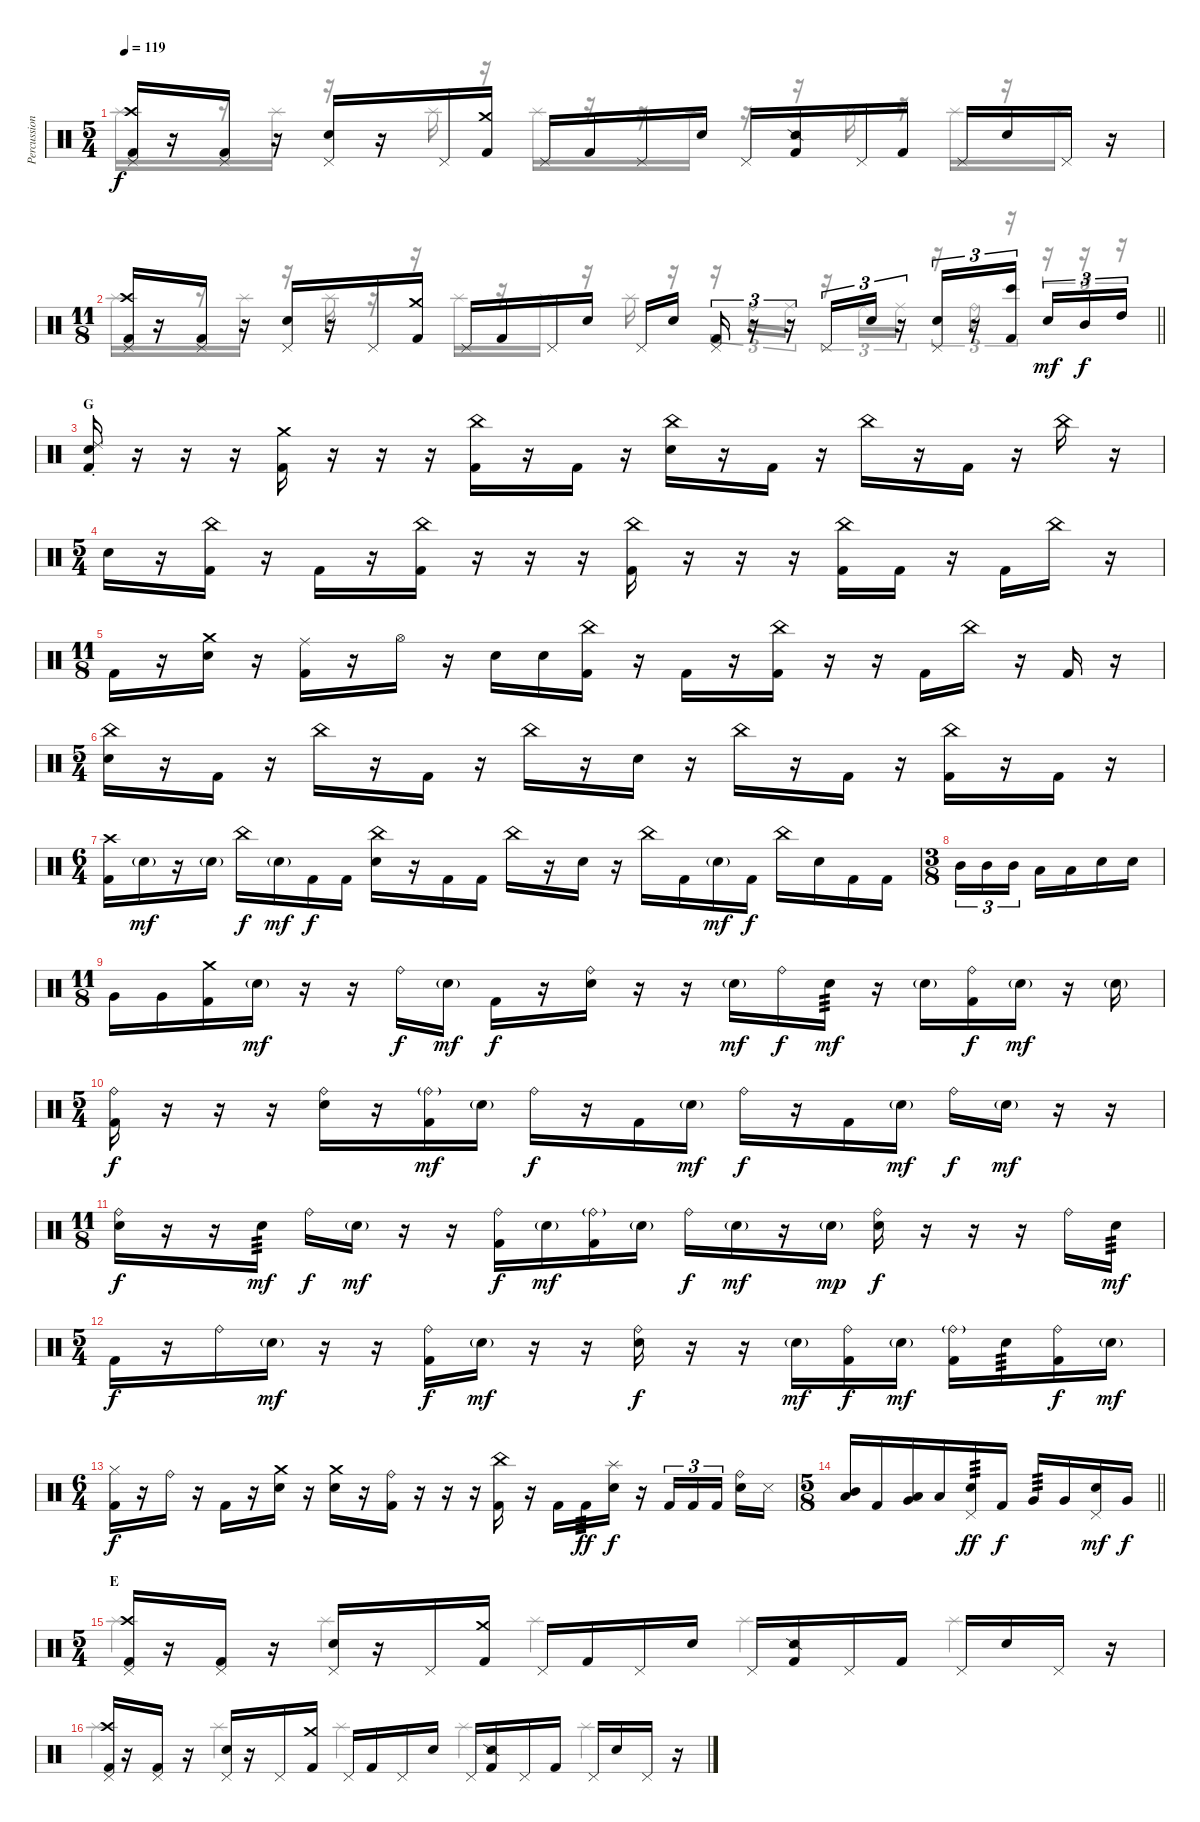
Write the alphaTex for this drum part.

\track ("Percussion" "Percussion") {instrument percussion}
\staff {score}
\articulation defaults
\voice
\ts (5 4)
\tempo 119
\clef neutral
\ks c
("Crash high (hit)" "Pedal Hi-Hat (hit)" "Kick (hit) 2").16{dy f} r.16 ("Pedal Hi-Hat (hit)" "Kick (hit) 2").16 r.16 ("Pedal Hi-Hat (hit)" "Snare (hit) 2").16 r.16 "Pedal Hi-Hat (hit)".16 ("Crash medium (hit)" "Kick (hit) 2").16 "Pedal Hi-Hat (hit)".16 "Kick (hit) 2".16 "Pedal Hi-Hat (hit)".16 "Snare (hit) 2".16 "Pedal Hi-Hat (hit)".16 ("Snare (side stick) 2" "Kick (hit) 2").16 "Pedal Hi-Hat (hit)".16 "Kick (hit) 2".16 "Pedal Hi-Hat (hit)".16 "Snare (hit) 2".16 "Pedal Hi-Hat (hit)".16 r.16 |
\ts (11 8)
\barLineRight lightlight
("Crash high (hit)" "Pedal Hi-Hat (hit)" "Kick (hit) 2").16 r.16 ("Pedal Hi-Hat (hit)" "Kick (hit) 2").16 r.16 ("Pedal Hi-Hat (hit)" "Snare (hit) 2").16 r.16 "Pedal Hi-Hat (hit)".16 ("Crash medium (hit)" "Kick (hit) 2").16 "Pedal Hi-Hat (hit)".16 "Kick (hit) 2".16 "Pedal Hi-Hat (hit)".16 "Snare (hit) 2".16 "Pedal Hi-Hat (hit)".16 "Snare (hit)".16 ("Pedal Hi-Hat (hit)" "Kick (hit) 2").16{tu (3 2)} r.16{tu (3 2)} r.16{tu (3 2)} "Pedal Hi-Hat (hit)".16{tu (3 2)} "Snare (hit) 2".16{tu (3 2)} r.16{tu (3 2)} ("Pedal Hi-Hat (hit)" "Snare (hit) 2").16{tu (3 2)} r.16{tu (3 2)} ("Bongo High (hit)" "Kick (hit) 2").16{tu (3 2)} "Snare (hit) 2".16{tu (3 2) dy mf} "Mid Tom (hit)".16{tu (3 2) dy f} "High Tom (hit)".16{tu (3 2)} |
\section ("" "G")
("Snare (hit)" "Ride (choke) 2" "Kick (hit) 2").16 r.16 r.16 r.16 ("Crash medium (hit)" "Kick (hit) 2").16 r.16 r.16 r.16 ("China (hit)" "Kick (hit) 2").16 r.16 "Kick (hit) 2".16 r.16 ("China (hit)" "Snare (hit) 2").16 r.16 "Kick (hit) 2".16 r.16 "China (hit)".16 r.16 "Kick (hit) 2".16 r.16 "China (hit)".16 r.16 |
\ts (5 4)
"Snare (hit) 2".16 r.16 ("China (hit)" "Kick (hit) 2").16 r.16 "Kick (hit) 2".16 r.16 ("China (hit)" "Kick (hit) 2").16 r.16 r.16 r.16 ("China (hit)" "Kick (hit) 2").16 r.16 r.16 r.16 ("China (hit)" "Kick (hit) 2").16 "Kick (hit) 2".16 r.16 "Kick (hit) 2".16 "China (hit)".16 r.16 |
\ts (11 8)
"Kick (hit) 2".16 r.16 ("Crash medium (hit)" "Snare (hit) 2").16 r.16 ("Ride (middle)" "Kick (hit) 2").16 r.16 "Hi-Hat (open)".16 r.16 "Snare (hit) 2".16 "Snare (hit) 2".16 ("China (hit)" "Kick (hit) 2").16 r.16 "Kick (hit) 2".16 r.16 ("China (hit)" "Kick (hit) 2").16 r.16 r.16 "Kick (hit) 2".16 "China (hit)".16 r.16 "Kick (hit) 2".16 r.16 |
\ts (5 4)
("China (hit)" "Snare (hit) 2").16 r.16 "Kick (hit) 2".16 r.16 "China (hit)".16 r.16 "Kick (hit) 2".16 r.16 "China (hit)".16 r.16 "Snare (hit) 2".16 r.16 "China (hit)".16 r.16 "Kick (hit) 2".16 r.16 ("China (hit)" "Kick (hit) 2").16 r.16 "Kick (hit) 2".16 r.16 |
\ts (6 4)
("Crash high (hit)" "Kick (hit) 2").16 "Snare (hit) 2"{g}.16{dy mf} r.16 "Snare (hit) 2"{g}.16 "China (hit)".16{dy f} "Snare (hit) 2"{g}.16{dy mf} "Kick (hit) 2".16{dy f} "Kick (hit) 2".16 ("China (hit)" "Snare (hit) 2").16 r.16 "Kick (hit) 2".16 "Kick (hit) 2".16 "China (hit)".16 r.16 "Snare (hit) 2".16 r.16 "China (hit)".16 "Kick (hit) 2".16 "Snare (hit) 2"{g}.16{dy mf} "Kick (hit) 2".16{dy f} "China (hit)".16 "Snare (hit) 2".16 "Kick (hit) 2".16 "Kick (hit) 2".16 |
\ts (3 8)
"Mid Tom (hit)".16{tu (3 2)} "Mid Tom (hit)".16{tu (3 2)} "Mid Tom (hit)".16{tu (3 2)} "Low Tom (hit)".16 "Low Tom (hit)".16 "Snare (hit) 2".16 "Snare (hit) 2".16 |
\ts (11 8)
"Very Low Tom (hit)".16 "Very Low Tom (hit)".16 ("Crash medium (hit)" "Kick (hit) 2").16 "Snare (hit) 2"{g}.16{dy mf} r.16 r.16 "Ride (bell)".16{dy f} "Snare (hit) 2"{g}.16{dy mf} "Kick (hit) 2".16{dy f} r.16 ("Ride (bell)" "Snare (hit) 2").16 r.16 r.16 "Snare (hit) 2"{g}.16{dy mf} "Ride (bell)".16{dy f} "Snare (hit) 2".16{tp 3 dy mf} r.16 "Snare (hit) 2"{g}.16 ("Ride (bell)" "Kick (hit) 2").16{dy f} "Snare (hit) 2"{g}.16{dy mf} r.16 "Snare (hit) 2"{g}.16 |
\ts (5 4)
("Ride (bell)" "Kick (hit) 2").16{dy f} r.16 r.16 r.16 ("Ride (bell)" "Snare (hit) 2").16 r.16 ("Ride (bell)"{g} "Kick (hit) 2").16{dy mf} "Snare (hit) 2"{g}.16 "Ride (bell)".16{dy f} r.16 "Kick (hit) 2".16 "Snare (hit) 2"{g}.16{dy mf} "Ride (bell)".16{dy f} r.16 "Kick (hit) 2".16 "Snare (hit) 2"{g}.16{dy mf} "Ride (bell)".16{dy f} "Snare (hit) 2"{g}.16{dy mf} r.16 r.16 |
\ts (11 8)
("Ride (bell)" "Snare (hit) 2").16{dy f} r.16 r.16 "Snare (hit) 2".16{tp 3 dy mf} "Ride (bell)".16{dy f} "Snare (hit) 2"{g}.16{dy mf} r.16 r.16 ("Ride (bell)" "Kick (hit) 2").16{dy f} "Snare (hit) 2"{g}.16{dy mf} ("Ride (bell)"{g} "Kick (hit) 2").16 "Snare (hit) 2"{g}.16 "Ride (bell)".16{dy f} "Snare (hit) 2"{g}.16{dy mf} r.16 "Snare (hit) 2"{g}.16{dy mp} ("Ride (bell)" "Snare (hit) 2").16{dy f} r.16 r.16 r.16 "Ride (bell)".16 "Snare (hit) 2".16{tp 3 dy mf} |
\ts (5 4)
"Kick (hit) 2".16{dy f} r.16 "Ride (bell)".16 "Snare (hit) 2"{g}.16{dy mf} r.16 r.16 ("Ride (bell)" "Kick (hit) 2").16{dy f} "Snare (hit) 2"{g}.16{dy mf} r.16 r.16 ("Ride (bell)" "Snare (hit) 2").16{dy f} r.16 r.16 "Snare (hit) 2"{g}.16{dy mf} ("Ride (bell)" "Kick (hit) 2").16{dy f} "Snare (hit) 2"{g}.16{dy mf} ("Ride (bell)"{g} "Kick (hit) 2").16 "Snare (hit) 2".16{tp 3} ("Ride (bell)" "Kick (hit) 2").16{dy f} "Snare (hit) 2"{g}.16{dy mf} |
\ts (6 4)
("Hi-Hat (closed)" "Kick (hit) 2").16{dy f} r.16 "Ride (bell)".16 r.16 "Kick (hit) 2".16 r.16 ("Crash medium (hit)" "Snare (hit) 2").16 r.16 ("Crash medium (hit)" "Snare (hit) 2").16 r.16 ("Ride (bell)" "Kick (hit) 2").16 r.16 r.16 r.16 ("China (hit)" "Kick (hit) 2").16 r.16 "Kick (hit) 2".16 "Kick (hit) 2".16{tp 3 dy ff} ("Splash (hit)" "Snare (hit) 2").16{dy f} r.16 "Kick (hit) 2".16{tu (3 2)} "Kick (hit) 2".16{tu (3 2)} "Kick (hit) 2".16{tu (3 2) beam splitsecondary} ("Ride (bell)" "Snare (hit) 2").16 "Metronome (hit)".16 |
\ts (5 8)
\barLineRight lightlight
("Mid Tom (hit)" "Low Tom (hit)").16{bu 60} "Kick (hit) 2".16 ("Low Tom (hit)" "Very Low Tom (hit)").16{bu 60} "Low Tom (hit)".16 ("Pedal Hi-Hat (hit)" "Snare (hit) 2").16{tp 3 dy ff} "Kick (hit) 2".16{dy f} "Very Low Tom (hit)".16{tp 3} "Very Low Tom (hit)".16 ("Pedal Hi-Hat (hit)" "Snare (hit) 2").16{dy mf} "Very Low Tom (hit)".16{dy f} |
\ts (5 4)
\section ("" "E")
("Crash high (hit)" "Pedal Hi-Hat (hit)" "Kick (hit) 2").16 r.16 ("Pedal Hi-Hat (hit)" "Kick (hit) 2").16 r.16 ("Pedal Hi-Hat (hit)" "Snare (hit) 2").16 r.16 "Pedal Hi-Hat (hit)".16 ("Crash medium (hit)" "Kick (hit) 2").16 "Pedal Hi-Hat (hit)".16 "Kick (hit) 2".16 "Pedal Hi-Hat (hit)".16 "Snare (hit) 2".16 "Pedal Hi-Hat (hit)".16 ("Snare (side stick) 2" "Kick (hit) 2").16 "Pedal Hi-Hat (hit)".16 "Kick (hit) 2".16 "Pedal Hi-Hat (hit)".16 "Snare (hit) 2".16 "Pedal Hi-Hat (hit)".16 r.16 |
("Crash high (hit)" "Pedal Hi-Hat (hit)" "Kick (hit) 2").16 r.16 ("Pedal Hi-Hat (hit)" "Kick (hit) 2").16 r.16 ("Pedal Hi-Hat (hit)" "Snare (hit) 2").16 r.16 "Pedal Hi-Hat (hit)".16 ("Crash medium (hit)" "Kick (hit) 2").16 "Pedal Hi-Hat (hit)".16 "Kick (hit) 2".16 "Pedal Hi-Hat (hit)".16 "Snare (hit) 2".16 "Pedal Hi-Hat (hit)".16 ("Snare (side stick) 2" "Kick (hit) 2").16 "Pedal Hi-Hat (hit)".16 "Kick (hit) 2".16 "Pedal Hi-Hat (hit)".16 "Snare (hit) 2".16 "Pedal Hi-Hat (hit)".16 r.16
\voice
\clef neutral
\ottava regular
\simile none
\ks c "Splash (hit)".16{dy f}
r.16 r.16 "Splash (hit)".16 r.16 r.16 "Splash (hit)".16 r.16 "Splash (hit)".16 r.16 r.16 "Splash (hit)".16 r.16 r.16 "Splash (hit)".16 r.16 "Splash (hit)".16 r.16 "Splash (hit)".16 r.16 |
\barLineRight lightlight "Splash (hit)".16
r.16 r.16 "Splash (hit)".16 r.16 "Splash (hit)".16 r.16 r.16 "Splash (hit)".16 r.16 "Splash (hit)".16 r.16 "Splash (hit)".16 r.16 r.16{tu (3 2)} "Ride (bell)".16{tu (3 2)} "Ride (middle)".16{tu (3 2)} r.16{tu (3 2)} "Ride (middle)".16{tu (3 2)} "Ride (middle)".16{tu (3 2)} r.16{tu (3 2)} "Ride (bell)".16{tu (3 2)} r.16{tu (3 2)} r.16{tu (3 2)} r.16{tu (3 2)} r.16{tu (3 2)} |
|
|
|
|
|
|
|
|
|
|
|
\barLineRight lightlight
|
"Splash (hit)".4 "Splash (hit)".4 "Splash (hit)".4 "Splash (hit)".4 "Splash (hit)".4 |
"Splash (hit)".4 "Splash (hit)".4 "Splash (hit)".4 "Splash (hit)".4 "Splash (hit)".4
